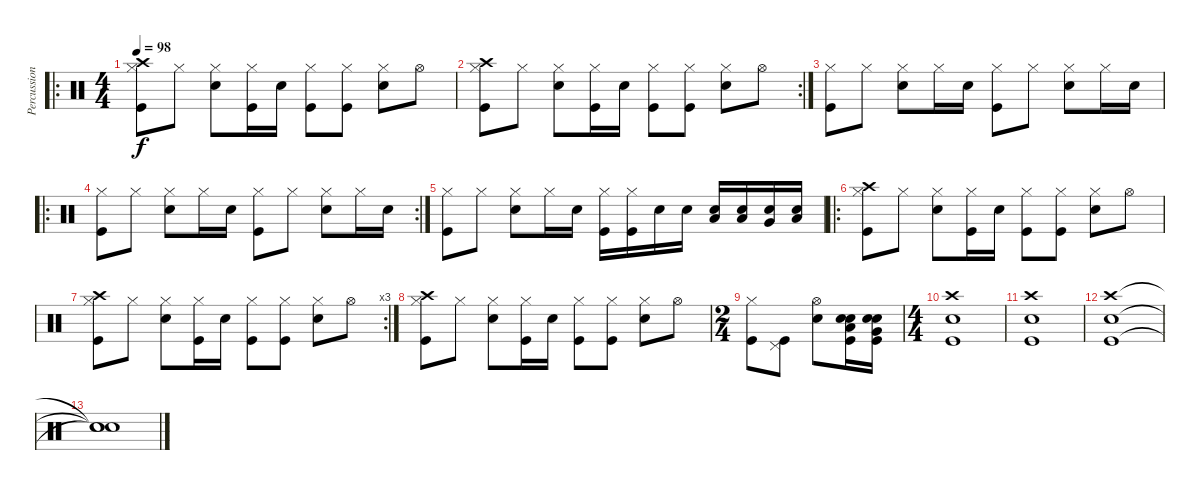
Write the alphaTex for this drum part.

\track ("Percussions" "Percussion") {instrument percussion}
\staff {score}
\articulation defaults
\ro
\ts (4 4)
\tempo 98
\clef neutral
\ks c
("Crash high (hit)" "Hi-Hat (closed)" "Kick (hit)").8{dy f} "Hi-Hat (closed)".8 ("Electric Snare (hit)" "Hi-Hat (closed)").8 ("Hi-Hat (closed)" "Kick (hit)").16 "Electric Snare (hit)".16 ("Hi-Hat (closed)" "Kick (hit)").8 ("Hi-Hat (closed)" "Kick (hit)").8 ("Electric Snare (hit)" "Hi-Hat (closed)").8 "Hi-Hat (open)".8 |
\rc 2
("Crash high (hit)" "Hi-Hat (closed)" "Kick (hit)").8 "Hi-Hat (closed)".8 ("Electric Snare (hit)" "Hi-Hat (closed)").8 ("Hi-Hat (closed)" "Kick (hit)").16 "Electric Snare (hit)".16 ("Hi-Hat (closed)" "Kick (hit)").8 ("Hi-Hat (closed)" "Kick (hit)").8 ("Electric Snare (hit)" "Hi-Hat (closed)").8 "Hi-Hat (open)".8 |
("Hi-Hat (closed)" "Kick (hit)").8 "Hi-Hat (closed)".8 ("Electric Snare (hit)" "Hi-Hat (closed)").8 "Hi-Hat (closed)".16 "Electric Snare (hit)".16 ("Hi-Hat (closed)" "Kick (hit)").8 "Hi-Hat (closed)".8 ("Electric Snare (hit)" "Hi-Hat (closed)").8 "Hi-Hat (closed)".16 "Electric Snare (hit)".16 |
\ro
\rc 2
("Hi-Hat (closed)" "Kick (hit)").8 "Hi-Hat (closed)".8 ("Electric Snare (hit)" "Hi-Hat (closed)").8 "Hi-Hat (closed)".16 "Electric Snare (hit)".16 ("Hi-Hat (closed)" "Kick (hit)").8 "Hi-Hat (closed)".8 ("Electric Snare (hit)" "Hi-Hat (closed)").8 "Hi-Hat (closed)".16 "Electric Snare (hit)".16 |
("Hi-Hat (closed)" "Kick (hit)").8 "Hi-Hat (closed)".8 ("Electric Snare (hit)" "Hi-Hat (closed)").8 "Hi-Hat (closed)".16 "Electric Snare (hit)".16 ("Hi-Hat (closed)" "Kick (hit)").16 ("Hi-Hat (closed)" "Kick (hit)").16 "Snare (hit) 2".16 "Snare (hit) 2".16 ("Low Tom (hit)" "Snare (hit) 2").16 ("Low Tom (hit)" "Snare (hit) 2").16 ("Very Low Tom (hit)" "Snare (hit) 2").16 ("Low Floor Tom (hit)" "Snare (hit) 2").16 |
\ro
("Crash high (hit)" "Hi-Hat (closed)" "Kick (hit)").8 "Hi-Hat (closed)".8 ("Electric Snare (hit)" "Hi-Hat (closed)").8 ("Hi-Hat (closed)" "Kick (hit)").16 "Electric Snare (hit)".16 ("Hi-Hat (closed)" "Kick (hit)").8 ("Hi-Hat (closed)" "Kick (hit)").8 ("Electric Snare (hit)" "Hi-Hat (closed)").8 "Hi-Hat (open)".8 |
\rc 3
("Crash high (hit)" "Hi-Hat (closed)" "Kick (hit)").8 "Hi-Hat (closed)".8 ("Electric Snare (hit)" "Hi-Hat (closed)").8 ("Hi-Hat (closed)" "Kick (hit)").16 "Electric Snare (hit)".16 ("Hi-Hat (closed)" "Kick (hit)").8 ("Hi-Hat (closed)" "Kick (hit)").8 ("Electric Snare (hit)" "Hi-Hat (closed)").8 "Hi-Hat (open)".8 |
("Crash high (hit)" "Hi-Hat (closed)" "Kick (hit)").8 "Hi-Hat (closed)".8 ("Electric Snare (hit)" "Hi-Hat (closed)").8 ("Hi-Hat (closed)" "Kick (hit)").16 "Electric Snare (hit)".16 ("Hi-Hat (closed)" "Kick (hit)").8 ("Hi-Hat (closed)" "Kick (hit)").8 ("Electric Snare (hit)" "Hi-Hat (closed)").8 "Hi-Hat (open)".8 |
\ts (2 4)
("Hi-Hat (closed)" "Kick (hit)").8 ("Pedal Hi-Hat (hit)" "Kick (hit)").8 ("Electric Snare (hit)" "Hi-Hat (open)").8 ("Low Tom (hit)" "Snare (hit) 2" "Electric Snare (hit)" "Kick (hit)").16 ("Very Low Tom (hit)" "Snare (hit) 2" "Electric Snare (hit)" "Kick (hit)").16 |
\ts (4 4)
("Electric Snare (hit)" "Crash high (hit)" "Kick (hit)").1 |
("Electric Snare (hit)" "Crash high (hit)" "Kick (hit)").1 |
("Electric Snare (hit)" "Crash high (hit)" "Kick (hit)").1 |
("Snare (hit)"{t} "Snare (hit)"{t} "Snare (hit)"{t}).1
